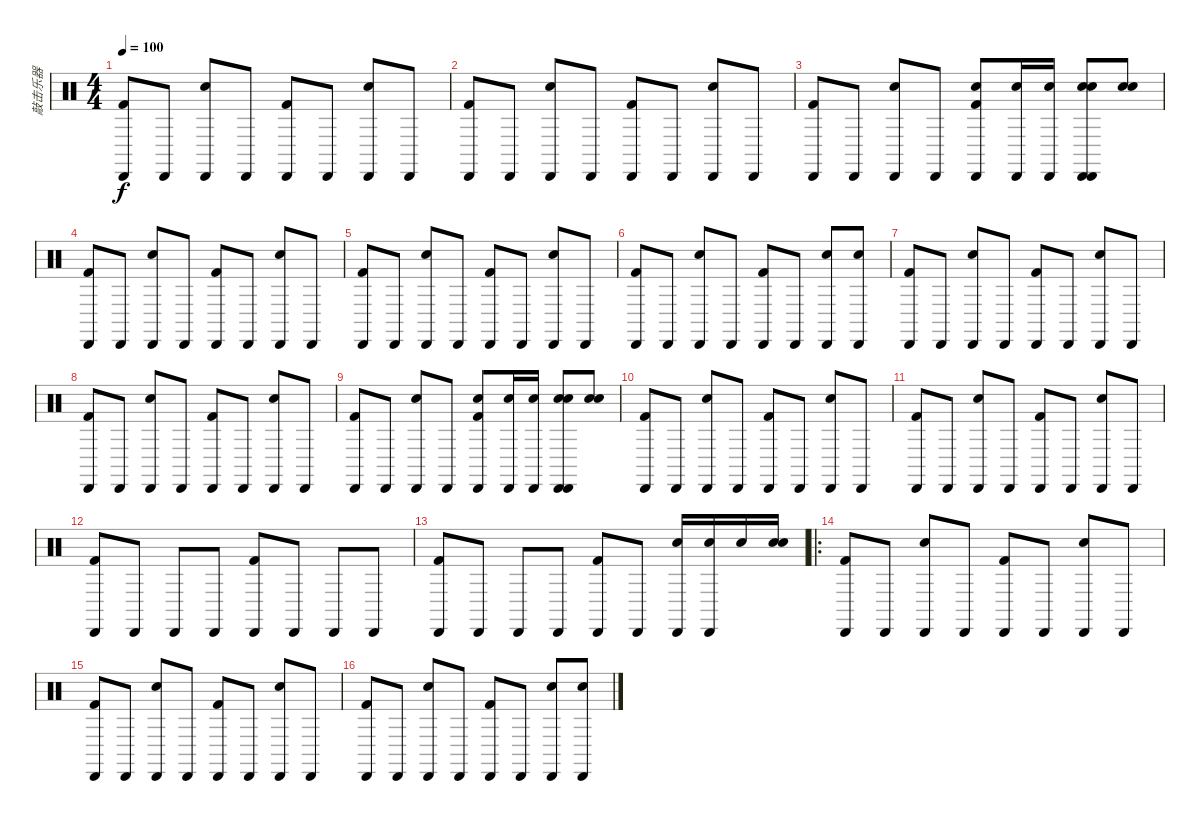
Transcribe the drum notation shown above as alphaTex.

\track ("敲击乐器" "敲击乐器") {instrument percussion}
\staff {score}
\articulation defaults
\ts (4 4)
\tempo 100
\clef neutral
\ks c
("Cabasa (hit)" "Kick (hit) 2").8{dy f} "Cabasa (hit)".8 ("Cabasa (hit)" "Snare (hit) 2").8 "Cabasa (hit)".8 ("Cabasa (hit)" "Kick (hit) 2").8 "Cabasa (hit)".8 ("Cabasa (hit)" "Snare (hit) 2").8 "Cabasa (hit)".8 |
("Cabasa (hit)" "Kick (hit) 2").8 "Cabasa (hit)".8 ("Cabasa (hit)" "Snare (hit) 2").8 "Cabasa (hit)".8 ("Cabasa (hit)" "Kick (hit) 2").8 "Cabasa (hit)".8 ("Cabasa (hit)" "Snare (hit) 2").8 "Cabasa (hit)".8 |
("Cabasa (hit)" "Kick (hit) 2").8 "Cabasa (hit)".8 ("Cabasa (hit)" "Snare (hit) 2").8 "Cabasa (hit)".8 ("Cabasa (hit)" "Kick (hit) 2" "Snare (hit) 2").8 ("Cabasa (hit)" "Snare (hit) 2").16 ("Cabasa (hit)" "Snare (hit) 2").16 ("Cabasa (hit)" "Snare (hit) 2" "Electric Snare (hit)" "Cabasa (hit)").8 ("Electric Snare (hit)" "Snare (hit) 2").8 |
("Cabasa (hit)" "Kick (hit) 2").8 "Cabasa (hit)".8 ("Cabasa (hit)" "Snare (hit) 2").8 "Cabasa (hit)".8 ("Cabasa (hit)" "Kick (hit) 2").8 "Cabasa (hit)".8 ("Cabasa (hit)" "Snare (hit) 2").8 "Cabasa (hit)".8 |
("Cabasa (hit)" "Kick (hit) 2").8 "Cabasa (hit)".8 ("Cabasa (hit)" "Snare (hit) 2").8 "Cabasa (hit)".8 ("Cabasa (hit)" "Kick (hit) 2").8 "Cabasa (hit)".8 ("Cabasa (hit)" "Snare (hit) 2").8 "Cabasa (hit)".8 |
("Cabasa (hit)" "Kick (hit) 2").8 "Cabasa (hit)".8 ("Cabasa (hit)" "Snare (hit) 2").8 "Cabasa (hit)".8 ("Cabasa (hit)" "Kick (hit) 2").8 "Cabasa (hit)".8 ("Cabasa (hit)" "Snare (hit) 2").8 ("Cabasa (hit)" "Electric Snare (hit)").8 |
("Cabasa (hit)" "Kick (hit) 2").8 "Cabasa (hit)".8 ("Cabasa (hit)" "Snare (hit) 2").8 "Cabasa (hit)".8 ("Cabasa (hit)" "Kick (hit) 2").8 "Cabasa (hit)".8 ("Cabasa (hit)" "Snare (hit) 2").8 "Cabasa (hit)".8 |
("Cabasa (hit)" "Kick (hit) 2").8 "Cabasa (hit)".8 ("Cabasa (hit)" "Snare (hit) 2").8 "Cabasa (hit)".8 ("Cabasa (hit)" "Kick (hit) 2").8 "Cabasa (hit)".8 ("Cabasa (hit)" "Snare (hit) 2").8 "Cabasa (hit)".8 |
("Cabasa (hit)" "Kick (hit) 2").8 "Cabasa (hit)".8 ("Cabasa (hit)" "Snare (hit) 2").8 "Cabasa (hit)".8 ("Cabasa (hit)" "Kick (hit) 2" "Snare (hit) 2").8 ("Cabasa (hit)" "Snare (hit) 2").16 ("Cabasa (hit)" "Snare (hit) 2").16 ("Cabasa (hit)" "Snare (hit) 2" "Electric Snare (hit)" "Cabasa (hit)").8 ("Electric Snare (hit)" "Snare (hit) 2").8 |
("Cabasa (hit)" "Kick (hit) 2").8 "Cabasa (hit)".8 ("Cabasa (hit)" "Snare (hit) 2").8 "Cabasa (hit)".8 ("Cabasa (hit)" "Kick (hit) 2").8 "Cabasa (hit)".8 ("Cabasa (hit)" "Snare (hit) 2").8 "Cabasa (hit)".8 |
("Cabasa (hit)" "Kick (hit) 2").8 "Cabasa (hit)".8 ("Cabasa (hit)" "Snare (hit) 2").8 "Cabasa (hit)".8 ("Cabasa (hit)" "Kick (hit) 2").8 "Cabasa (hit)".8 ("Cabasa (hit)" "Snare (hit) 2").8 "Cabasa (hit)".8 |
("Cabasa (hit)" "Kick (hit) 2").8 "Cabasa (hit)".8 "Cabasa (hit)".8 "Cabasa (hit)".8 ("Cabasa (hit)" "Kick (hit) 2").8 "Cabasa (hit)".8 "Cabasa (hit)".8 "Cabasa (hit)".8 |
("Cabasa (hit)" "Kick (hit) 2").8 "Cabasa (hit)".8 "Cabasa (hit)".8 "Cabasa (hit)".8 ("Cabasa (hit)" "Kick (hit) 2").8 "Cabasa (hit)".8 ("Cabasa (hit)" "Snare (hit) 2").16 ("Cabasa (hit)" "Snare (hit) 2").16 "Snare (hit) 2".16 ("Snare (hit) 2" "Electric Snare (hit)").16 |
\ro
("Cabasa (hit)" "Kick (hit) 2").8 "Cabasa (hit)".8 ("Cabasa (hit)" "Snare (hit) 2").8 "Cabasa (hit)".8 ("Cabasa (hit)" "Kick (hit) 2").8 "Cabasa (hit)".8 ("Cabasa (hit)" "Snare (hit) 2").8 "Cabasa (hit)".8 |
("Cabasa (hit)" "Kick (hit) 2").8 "Cabasa (hit)".8 ("Cabasa (hit)" "Snare (hit) 2").8 "Cabasa (hit)".8 ("Cabasa (hit)" "Kick (hit) 2").8 "Cabasa (hit)".8 ("Cabasa (hit)" "Snare (hit) 2").8 "Cabasa (hit)".8 |
("Cabasa (hit)" "Kick (hit) 2").8 "Cabasa (hit)".8 ("Cabasa (hit)" "Snare (hit) 2").8 "Cabasa (hit)".8 ("Cabasa (hit)" "Kick (hit) 2").8 "Cabasa (hit)".8 ("Cabasa (hit)" "Snare (hit) 2").8 ("Cabasa (hit)" "Electric Snare (hit)").8
